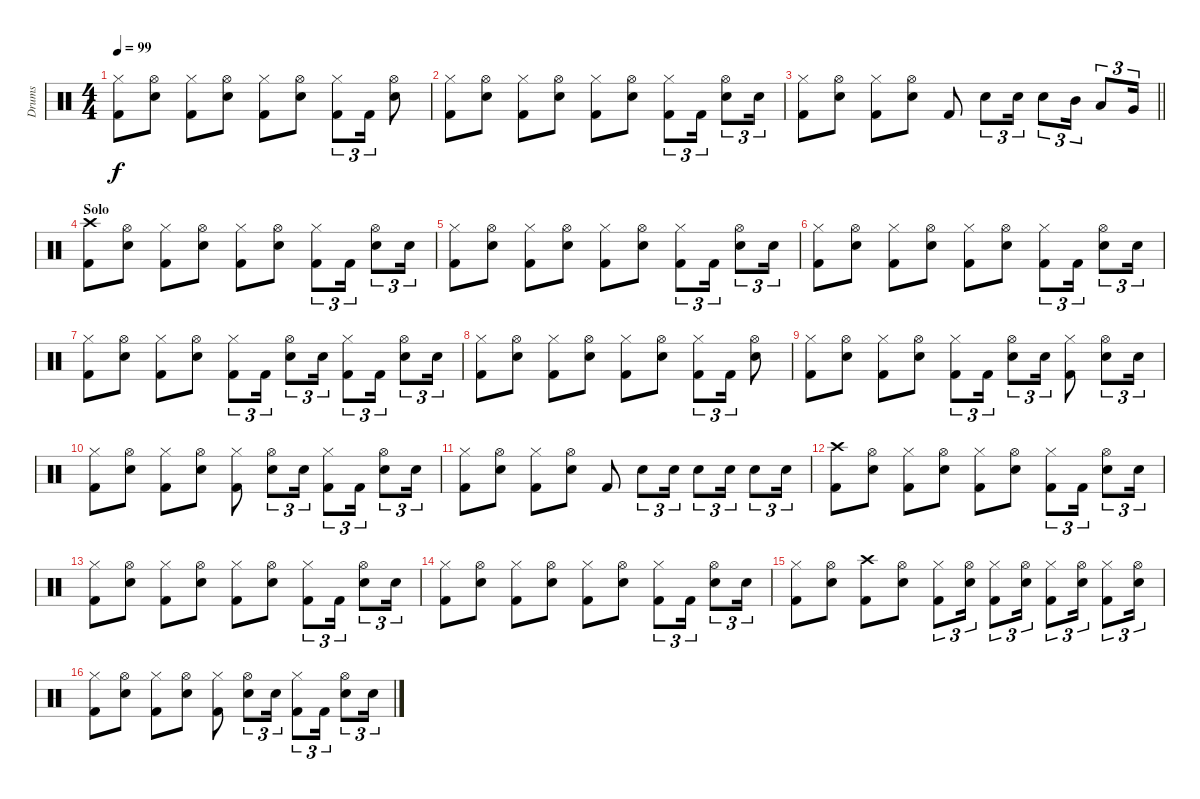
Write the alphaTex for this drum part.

\track ("Drums" "Drums") {instrument percussion}
\staff {score}
\articulation defaults
\ts (4 4)
\tempo 99
\clef neutral
\ks c
("Hi-Hat (closed)" "Kick (hit) 2").8{dy f} ("Hi-Hat (open)" "Snare (hit) 2").8 ("Hi-Hat (closed)" "Kick (hit) 2").8 ("Hi-Hat (open)" "Snare (hit) 2").8 ("Hi-Hat (closed)" "Kick (hit) 2").8 ("Hi-Hat (open)" "Snare (hit) 2").8 ("Hi-Hat (closed)" "Kick (hit) 2").8{tu (3 2)} "Kick (hit) 2".16{tu (3 2)} ("Hi-Hat (open)" "Snare (hit) 2").8 |
("Hi-Hat (closed)" "Kick (hit) 2").8 ("Hi-Hat (open)" "Snare (hit) 2").8 ("Hi-Hat (closed)" "Kick (hit) 2").8 ("Hi-Hat (open)" "Snare (hit) 2").8 ("Hi-Hat (closed)" "Kick (hit) 2").8 ("Hi-Hat (open)" "Snare (hit) 2").8 ("Hi-Hat (closed)" "Kick (hit) 2").8{tu (3 2)} "Kick (hit) 2".16{tu (3 2)} ("Hi-Hat (open)" "Snare (hit) 2").8{tu (3 2)} "Snare (hit) 2".16{tu (3 2)} |
\barLineRight lightlight
("Hi-Hat (closed)" "Kick (hit) 2").8 ("Hi-Hat (open)" "Snare (hit) 2").8 ("Hi-Hat (closed)" "Kick (hit) 2").8 ("Hi-Hat (open)" "Snare (hit) 2").8 "Kick (hit) 2".8 "Snare (hit) 2".8{tu (3 2)} "Snare (hit) 2".16{tu (3 2)} "Snare (hit) 2".8{tu (3 2)} "Mid Tom (hit)".16{tu (3 2)} "Low Tom (hit)".8{tu (3 2)} "Very Low Tom (hit)".16{tu (3 2)} |
\section ("" "Solo")
("Crash high (hit)" "Kick (hit) 2").8 ("Hi-Hat (open)" "Snare (hit) 2").8 ("Hi-Hat (closed)" "Kick (hit) 2").8 ("Hi-Hat (open)" "Snare (hit) 2").8 ("Hi-Hat (closed)" "Kick (hit) 2").8 ("Hi-Hat (open)" "Snare (hit) 2").8 ("Hi-Hat (closed)" "Kick (hit) 2").8{tu (3 2)} "Kick (hit) 2".16{tu (3 2)} ("Hi-Hat (open)" "Snare (hit) 2").8{tu (3 2)} "Snare (hit) 2".16{tu (3 2)} |
("Hi-Hat (closed)" "Kick (hit) 2").8 ("Hi-Hat (open)" "Snare (hit) 2").8 ("Hi-Hat (closed)" "Kick (hit) 2").8 ("Hi-Hat (open)" "Snare (hit) 2").8 ("Hi-Hat (closed)" "Kick (hit) 2").8 ("Hi-Hat (open)" "Snare (hit) 2").8 ("Hi-Hat (closed)" "Kick (hit) 2").8{tu (3 2)} "Kick (hit) 2".16{tu (3 2)} ("Hi-Hat (open)" "Snare (hit) 2").8{tu (3 2)} "Snare (hit) 2".16{tu (3 2)} |
("Hi-Hat (closed)" "Kick (hit) 2").8 ("Hi-Hat (open)" "Snare (hit) 2").8 ("Hi-Hat (closed)" "Kick (hit) 2").8 ("Hi-Hat (open)" "Snare (hit) 2").8 ("Hi-Hat (closed)" "Kick (hit) 2").8 ("Hi-Hat (open)" "Snare (hit) 2").8 ("Hi-Hat (closed)" "Kick (hit) 2").8{tu (3 2)} "Kick (hit) 2".16{tu (3 2)} ("Hi-Hat (open)" "Snare (hit) 2").8{tu (3 2)} "Snare (hit) 2".16{tu (3 2)} |
("Hi-Hat (closed)" "Kick (hit) 2").8 ("Hi-Hat (open)" "Snare (hit) 2").8 ("Hi-Hat (closed)" "Kick (hit) 2").8 ("Hi-Hat (open)" "Snare (hit) 2").8 ("Hi-Hat (closed)" "Kick (hit) 2").8{tu (3 2)} "Kick (hit) 2".16{tu (3 2)} ("Hi-Hat (open)" "Snare (hit) 2").8{tu (3 2)} "Snare (hit) 2".16{tu (3 2)} ("Hi-Hat (closed)" "Kick (hit) 2").8{tu (3 2)} "Kick (hit) 2".16{tu (3 2)} ("Hi-Hat (open)" "Snare (hit) 2").8{tu (3 2)} "Snare (hit) 2".16{tu (3 2)} |
("Hi-Hat (closed)" "Kick (hit) 2").8 ("Hi-Hat (open)" "Snare (hit) 2").8 ("Hi-Hat (closed)" "Kick (hit) 2").8 ("Hi-Hat (open)" "Snare (hit) 2").8 ("Hi-Hat (closed)" "Kick (hit) 2").8 ("Hi-Hat (open)" "Snare (hit) 2").8 ("Hi-Hat (closed)" "Kick (hit) 2").8{tu (3 2)} "Kick (hit) 2".16{tu (3 2)} ("Hi-Hat (open)" "Snare (hit) 2").8 |
("Hi-Hat (closed)" "Kick (hit) 2").8 ("Hi-Hat (open)" "Snare (hit) 2").8 ("Hi-Hat (closed)" "Kick (hit) 2").8 ("Hi-Hat (open)" "Snare (hit) 2").8 ("Hi-Hat (closed)" "Kick (hit) 2").8{tu (3 2)} "Kick (hit) 2".16{tu (3 2)} ("Hi-Hat (open)" "Snare (hit) 2").8{tu (3 2)} "Snare (hit) 2".16{tu (3 2)} ("Hi-Hat (closed)" "Kick (hit) 2").8 ("Hi-Hat (open)" "Snare (hit) 2").8{tu (3 2)} "Snare (hit) 2".16{tu (3 2)} |
("Hi-Hat (closed)" "Kick (hit) 2").8 ("Hi-Hat (open)" "Snare (hit) 2").8 ("Hi-Hat (closed)" "Kick (hit) 2").8 ("Hi-Hat (open)" "Snare (hit) 2").8 ("Hi-Hat (closed)" "Kick (hit) 2").8 ("Hi-Hat (open)" "Snare (hit) 2").8{tu (3 2)} "Snare (hit) 2".16{tu (3 2)} ("Hi-Hat (closed)" "Kick (hit) 2").8{tu (3 2)} "Kick (hit) 2".16{tu (3 2)} ("Hi-Hat (open)" "Snare (hit) 2").8{tu (3 2)} "Snare (hit) 2".16{tu (3 2)} |
("Hi-Hat (closed)" "Kick (hit) 2").8 ("Hi-Hat (open)" "Snare (hit) 2").8 ("Hi-Hat (closed)" "Kick (hit) 2").8 ("Hi-Hat (open)" "Snare (hit) 2").8 "Kick (hit) 2".8 "Snare (hit) 2".8{tu (3 2)} "Snare (hit) 2".16{tu (3 2)} "Snare (hit) 2".8{tu (3 2)} "Snare (hit) 2".16{tu (3 2)} "Snare (hit) 2".8{tu (3 2)} "Snare (hit) 2".16{tu (3 2)} |
("Crash high (hit)" "Kick (hit) 2").8 ("Hi-Hat (open)" "Snare (hit) 2").8 ("Hi-Hat (closed)" "Kick (hit) 2").8 ("Hi-Hat (open)" "Snare (hit) 2").8 ("Hi-Hat (closed)" "Kick (hit) 2").8 ("Hi-Hat (open)" "Snare (hit) 2").8 ("Hi-Hat (closed)" "Kick (hit) 2").8{tu (3 2)} "Kick (hit) 2".16{tu (3 2)} ("Hi-Hat (open)" "Snare (hit) 2").8{tu (3 2)} "Snare (hit) 2".16{tu (3 2)} |
("Hi-Hat (closed)" "Kick (hit) 2").8 ("Hi-Hat (open)" "Snare (hit) 2").8 ("Hi-Hat (closed)" "Kick (hit) 2").8 ("Hi-Hat (open)" "Snare (hit) 2").8 ("Hi-Hat (closed)" "Kick (hit) 2").8 ("Hi-Hat (open)" "Snare (hit) 2").8 ("Hi-Hat (closed)" "Kick (hit) 2").8{tu (3 2)} "Kick (hit) 2".16{tu (3 2)} ("Hi-Hat (open)" "Snare (hit) 2").8{tu (3 2)} "Snare (hit) 2".16{tu (3 2)} |
("Hi-Hat (closed)" "Kick (hit) 2").8 ("Hi-Hat (open)" "Snare (hit) 2").8 ("Hi-Hat (closed)" "Kick (hit) 2").8 ("Hi-Hat (open)" "Snare (hit) 2").8 ("Hi-Hat (closed)" "Kick (hit) 2").8 ("Hi-Hat (open)" "Snare (hit) 2").8 ("Hi-Hat (closed)" "Kick (hit) 2").8{tu (3 2)} "Kick (hit) 2".16{tu (3 2)} ("Hi-Hat (open)" "Snare (hit) 2").8{tu (3 2)} "Snare (hit) 2".16{tu (3 2)} |
("Hi-Hat (closed)" "Kick (hit) 2").8 ("Hi-Hat (open)" "Snare (hit) 2").8 ("Crash high (hit)" "Kick (hit) 2").8 ("Hi-Hat (open)" "Snare (hit) 2").8 ("Hi-Hat (closed)" "Kick (hit) 2").8{tu (3 2)} ("Hi-Hat (open)" "Snare (hit) 2").16{tu (3 2)} ("Hi-Hat (closed)" "Kick (hit) 2").8{tu (3 2)} ("Hi-Hat (open)" "Snare (hit) 2").16{tu (3 2)} ("Hi-Hat (closed)" "Kick (hit) 2").8{tu (3 2)} ("Hi-Hat (open)" "Snare (hit) 2").16{tu (3 2)} ("Hi-Hat (closed)" "Kick (hit) 2").8{tu (3 2)} ("Hi-Hat (open)" "Snare (hit) 2").16{tu (3 2)} |
("Hi-Hat (closed)" "Kick (hit) 2").8 ("Hi-Hat (open)" "Snare (hit) 2").8 ("Hi-Hat (closed)" "Kick (hit) 2").8 ("Hi-Hat (open)" "Snare (hit) 2").8 ("Hi-Hat (closed)" "Kick (hit) 2").8 ("Hi-Hat (open)" "Snare (hit) 2").8{tu (3 2)} "Snare (hit) 2".16{tu (3 2)} ("Hi-Hat (closed)" "Kick (hit) 2").8{tu (3 2)} "Kick (hit) 2".16{tu (3 2)} ("Hi-Hat (open)" "Snare (hit) 2").8{tu (3 2)} "Snare (hit) 2".16{tu (3 2)}
